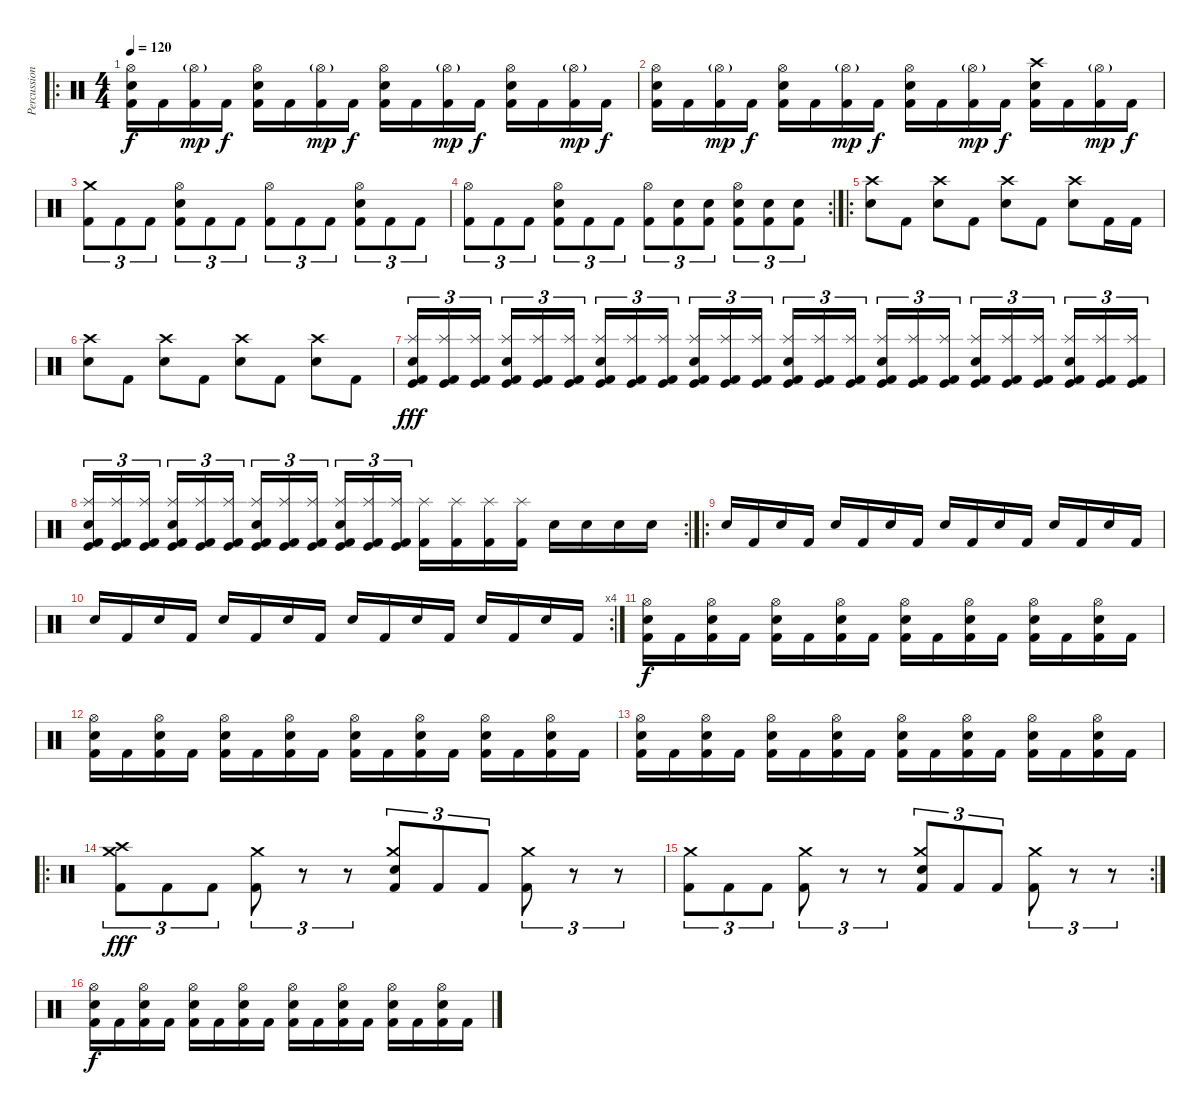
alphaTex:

\track ("Percussions" "Percussion") {instrument percussion}
\staff {score}
\articulation defaults
\ro
\ts (4 4)
\tempo 120
\clef neutral
\ks c
("Hi-Hat (open)" "Snare (hit) 2" "Kick (hit) 2").16{dy f} "Kick (hit) 2".16 ("Hi-Hat (open)"{g} "Kick (hit) 2").16{dy mp} "Kick (hit) 2".16{dy f} ("Hi-Hat (open)" "Snare (hit) 2" "Kick (hit) 2").16 "Kick (hit) 2".16 ("Hi-Hat (open)"{g} "Kick (hit) 2").16{dy mp} "Kick (hit) 2".16{dy f} ("Hi-Hat (open)" "Snare (hit) 2" "Kick (hit) 2").16 "Kick (hit) 2".16 ("Hi-Hat (open)"{g} "Kick (hit) 2").16{dy mp} "Kick (hit) 2".16{dy f} ("Hi-Hat (open)" "Snare (hit) 2" "Kick (hit) 2").16 "Kick (hit) 2".16 ("Hi-Hat (open)"{g} "Kick (hit) 2").16{dy mp} "Kick (hit) 2".16{dy f} |
("Hi-Hat (open)" "Snare (hit) 2" "Kick (hit) 2").16 "Kick (hit) 2".16 ("Hi-Hat (open)"{g} "Kick (hit) 2").16{dy mp} "Kick (hit) 2".16{dy f} ("Hi-Hat (open)" "Snare (hit) 2" "Kick (hit) 2").16 "Kick (hit) 2".16 ("Hi-Hat (open)"{g} "Kick (hit) 2").16{dy mp} "Kick (hit) 2".16{dy f} ("Hi-Hat (open)" "Snare (hit) 2" "Kick (hit) 2").16 "Kick (hit) 2".16 ("Hi-Hat (open)"{g} "Kick (hit) 2").16{dy mp} "Kick (hit) 2".16{dy f} ("Crash high (hit)" "Snare (hit) 2" "Kick (hit) 2").16 "Kick (hit) 2".16 ("Hi-Hat (open)"{g} "Kick (hit) 2").16{dy mp} "Kick (hit) 2".16{dy f} |
("Crash medium (hit)" "Kick (hit) 2").8{tu (3 2)} "Kick (hit) 2".8{tu (3 2)} "Kick (hit) 2".8{tu (3 2)} ("Hi-Hat (open)" "Kick (hit) 2" "Snare (hit) 2").8{tu (3 2)} "Kick (hit) 2".8{tu (3 2)} "Kick (hit) 2".8{tu (3 2)} ("Hi-Hat (open)" "Kick (hit) 2").8{tu (3 2)} "Kick (hit) 2".8{tu (3 2)} "Kick (hit) 2".8{tu (3 2)} ("Hi-Hat (open)" "Kick (hit) 2" "Snare (hit) 2").8{tu (3 2)} "Kick (hit) 2".8{tu (3 2)} "Kick (hit) 2".8{tu (3 2)} |
\rc 2
("Hi-Hat (open)" "Kick (hit) 2").8{tu (3 2)} "Kick (hit) 2".8{tu (3 2)} "Kick (hit) 2".8{tu (3 2)} ("Hi-Hat (open)" "Kick (hit) 2" "Snare (hit) 2").8{tu (3 2)} "Kick (hit) 2".8{tu (3 2)} "Kick (hit) 2".8{tu (3 2)} ("Hi-Hat (open)" "Kick (hit) 2").8{tu (3 2)} ("Snare (hit) 2" "Kick (hit) 2").8{tu (3 2)} ("Snare (hit) 2" "Kick (hit) 2").8{tu (3 2)} ("Hi-Hat (open)" "Snare (hit) 2" "Kick (hit) 2").8{tu (3 2)} ("Snare (hit) 2" "Kick (hit) 2").8{tu (3 2)} ("Snare (hit) 2" "Kick (hit) 2").8{tu (3 2)} |
\ro
("Crash high (hit)" "Snare (hit) 2").8 "Kick (hit) 2".8 ("Crash high (hit)" "Snare (hit) 2").8 "Kick (hit) 2".8 ("Crash high (hit)" "Snare (hit) 2").8 "Kick (hit) 2".8 ("Crash high (hit)" "Snare (hit) 2").8 "Kick (hit) 2".16 "Kick (hit) 2".16 |
("Crash high (hit)" "Snare (hit) 2").8 "Kick (hit) 2".8 ("Crash high (hit)" "Snare (hit) 2").8 "Kick (hit) 2".8 ("Crash high (hit)" "Snare (hit) 2").8 "Kick (hit) 2".8 ("Crash high (hit)" "Snare (hit) 2").8 "Kick (hit) 2".8 |
("Splash (hit)" "Electric Snare (hit)" "Kick (hit) 2" "Kick (hit)").16{tu (3 2) dy fff} ("Splash (hit)" "Kick (hit) 2" "Kick (hit)").16{tu (3 2)} ("Splash (hit)" "Kick (hit) 2" "Kick (hit)").16{tu (3 2) beam splitsecondary} ("Splash (hit)" "Electric Snare (hit)" "Kick (hit) 2" "Kick (hit)").16{tu (3 2)} ("Splash (hit)" "Kick (hit) 2" "Kick (hit)").16{tu (3 2)} ("Splash (hit)" "Kick (hit) 2" "Kick (hit)").16{tu (3 2)} ("Splash (hit)" "Electric Snare (hit)" "Kick (hit) 2" "Kick (hit)").16{tu (3 2)} ("Splash (hit)" "Kick (hit) 2" "Kick (hit)").16{tu (3 2)} ("Splash (hit)" "Kick (hit) 2" "Kick (hit)").16{tu (3 2) beam splitsecondary} ("Splash (hit)" "Electric Snare (hit)" "Kick (hit) 2" "Kick (hit)").16{tu (3 2)} ("Splash (hit)" "Kick (hit) 2" "Kick (hit)").16{tu (3 2)} ("Splash (hit)" "Kick (hit) 2" "Kick (hit)").16{tu (3 2)} ("Splash (hit)" "Electric Snare (hit)" "Kick (hit) 2" "Kick (hit)").16{tu (3 2)} ("Splash (hit)" "Kick (hit) 2" "Kick (hit)").16{tu (3 2)} ("Splash (hit)" "Kick (hit) 2" "Kick (hit)").16{tu (3 2) beam splitsecondary} ("Splash (hit)" "Electric Snare (hit)" "Kick (hit) 2" "Kick (hit)").16{tu (3 2)} ("Splash (hit)" "Kick (hit) 2" "Kick (hit)").16{tu (3 2)} ("Splash (hit)" "Kick (hit) 2" "Kick (hit)").16{tu (3 2)} ("Splash (hit)" "Electric Snare (hit)" "Kick (hit) 2" "Kick (hit)").16{tu (3 2)} ("Splash (hit)" "Kick (hit) 2" "Kick (hit)").16{tu (3 2)} ("Splash (hit)" "Kick (hit) 2" "Kick (hit)").16{tu (3 2) beam splitsecondary} ("Splash (hit)" "Electric Snare (hit)" "Kick (hit) 2" "Kick (hit)").16{tu (3 2)} ("Splash (hit)" "Kick (hit) 2" "Kick (hit)").16{tu (3 2)} ("Splash (hit)" "Kick (hit) 2" "Kick (hit)").16{tu (3 2)} |
\rc 2
("Splash (hit)" "Electric Snare (hit)" "Kick (hit) 2" "Kick (hit)").16{tu (3 2)} ("Splash (hit)" "Kick (hit) 2" "Kick (hit)").16{tu (3 2)} ("Splash (hit)" "Kick (hit) 2" "Kick (hit)").16{tu (3 2) beam splitsecondary} ("Splash (hit)" "Electric Snare (hit)" "Kick (hit) 2" "Kick (hit)").16{tu (3 2)} ("Splash (hit)" "Kick (hit) 2" "Kick (hit)").16{tu (3 2)} ("Splash (hit)" "Kick (hit) 2" "Kick (hit)").16{tu (3 2)} ("Splash (hit)" "Electric Snare (hit)" "Kick (hit) 2" "Kick (hit)").16{tu (3 2)} ("Splash (hit)" "Kick (hit) 2" "Kick (hit)").16{tu (3 2)} ("Splash (hit)" "Kick (hit) 2" "Kick (hit)").16{tu (3 2) beam splitsecondary} ("Splash (hit)" "Electric Snare (hit)" "Kick (hit) 2" "Kick (hit)").16{tu (3 2)} ("Splash (hit)" "Kick (hit) 2" "Kick (hit)").16{tu (3 2)} ("Splash (hit)" "Kick (hit) 2" "Kick (hit)").16{tu (3 2)} ("Splash (hit)" "Kick (hit) 2").16 ("Splash (hit)" "Kick (hit) 2").16 ("Splash (hit)" "Kick (hit) 2").16 ("Splash (hit)" "Kick (hit) 2").16 "Electric Snare (hit)".16 "Electric Snare (hit)".16 "Electric Snare (hit)".16 "Electric Snare (hit)".16 |
\ro "Electric Snare (hit)".16 "Kick (hit) 2".16 "Electric Snare (hit)".16 "Kick (hit) 2".16 "Electric Snare (hit)".16 "Kick (hit) 2".16 "Electric Snare (hit)".16 "Kick (hit) 2".16 "Electric Snare (hit)".16 "Kick (hit) 2".16 "Electric Snare (hit)".16 "Kick (hit) 2".16 "Electric Snare (hit)".16 "Kick (hit) 2".16 "Electric Snare (hit)".16 "Kick (hit) 2".16
|
\rc 4 "Electric Snare (hit)".16 "Kick (hit) 2".16 "Electric Snare (hit)".16 "Kick (hit) 2".16 "Electric Snare (hit)".16 "Kick (hit) 2".16 "Electric Snare (hit)".16 "Kick (hit) 2".16 "Electric Snare (hit)".16 "Kick (hit) 2".16 "Electric Snare (hit)".16 "Kick (hit) 2".16 "Electric Snare (hit)".16 "Kick (hit) 2".16 "Electric Snare (hit)".16 "Kick (hit) 2".16
|
("Hi-Hat (open)" "Electric Snare (hit)" "Kick (hit) 2").16{dy f} "Kick (hit) 2".16 ("Hi-Hat (open)" "Electric Snare (hit)" "Kick (hit) 2").16 "Kick (hit) 2".16 ("Hi-Hat (open)" "Electric Snare (hit)" "Kick (hit) 2").16 "Kick (hit) 2".16 ("Hi-Hat (open)" "Electric Snare (hit)" "Kick (hit) 2").16 "Kick (hit) 2".16 ("Hi-Hat (open)" "Electric Snare (hit)" "Kick (hit) 2").16 "Kick (hit) 2".16 ("Hi-Hat (open)" "Electric Snare (hit)" "Kick (hit) 2").16 "Kick (hit) 2".16 ("Hi-Hat (open)" "Electric Snare (hit)" "Kick (hit) 2").16 "Kick (hit) 2".16 ("Hi-Hat (open)" "Electric Snare (hit)" "Kick (hit) 2").16 "Kick (hit) 2".16 |
("Hi-Hat (open)" "Electric Snare (hit)" "Kick (hit) 2").16 "Kick (hit) 2".16 ("Hi-Hat (open)" "Electric Snare (hit)" "Kick (hit) 2").16 "Kick (hit) 2".16 ("Hi-Hat (open)" "Electric Snare (hit)" "Kick (hit) 2").16 "Kick (hit) 2".16 ("Hi-Hat (open)" "Electric Snare (hit)" "Kick (hit) 2").16 "Kick (hit) 2".16 ("Hi-Hat (open)" "Electric Snare (hit)" "Kick (hit) 2").16 "Kick (hit) 2".16 ("Hi-Hat (open)" "Electric Snare (hit)" "Kick (hit) 2").16 "Kick (hit) 2".16 ("Hi-Hat (open)" "Electric Snare (hit)" "Kick (hit) 2").16 "Kick (hit) 2".16 ("Hi-Hat (open)" "Electric Snare (hit)" "Kick (hit) 2").16 "Kick (hit) 2".16 |
("Hi-Hat (open)" "Electric Snare (hit)" "Kick (hit) 2").16 "Kick (hit) 2".16 ("Hi-Hat (open)" "Electric Snare (hit)" "Kick (hit) 2").16 "Kick (hit) 2".16 ("Hi-Hat (open)" "Electric Snare (hit)" "Kick (hit) 2").16 "Kick (hit) 2".16 ("Hi-Hat (open)" "Electric Snare (hit)" "Kick (hit) 2").16 "Kick (hit) 2".16 ("Hi-Hat (open)" "Electric Snare (hit)" "Kick (hit) 2").16 "Kick (hit) 2".16 ("Hi-Hat (open)" "Electric Snare (hit)" "Kick (hit) 2").16 "Kick (hit) 2".16 ("Hi-Hat (open)" "Electric Snare (hit)" "Kick (hit) 2").16 "Kick (hit) 2".16 ("Hi-Hat (open)" "Electric Snare (hit)" "Kick (hit) 2").16 "Kick (hit) 2".16 |
\ro
("Crash medium (hit)" "Crash high (hit)" "Kick (hit) 2").8{tu (3 2) dy fff} "Kick (hit) 2".8{tu (3 2)} "Kick (hit) 2".8{tu (3 2)} ("Crash medium (hit)" "Kick (hit) 2").8{tu (3 2)} r.8{tu (3 2)} r.8{tu (3 2)} ("Crash medium (hit)" "Electric Snare (hit)" "Kick (hit) 2").8{tu (3 2)} "Kick (hit) 2".8{tu (3 2)} "Kick (hit) 2".8{tu (3 2)} ("Crash medium (hit)" "Kick (hit) 2").8{tu (3 2)} r.8{tu (3 2)} r.8{tu (3 2)} |
\rc 2
("Crash medium (hit)" "Kick (hit) 2").8{tu (3 2)} "Kick (hit) 2".8{tu (3 2)} "Kick (hit) 2".8{tu (3 2)} ("Crash medium (hit)" "Kick (hit) 2").8{tu (3 2)} r.8{tu (3 2)} r.8{tu (3 2)} ("Crash medium (hit)" "Electric Snare (hit)" "Kick (hit) 2").8{tu (3 2)} "Kick (hit) 2".8{tu (3 2)} "Kick (hit) 2".8{tu (3 2)} ("Crash medium (hit)" "Kick (hit) 2").8{tu (3 2)} r.8{tu (3 2)} r.8{tu (3 2)} |
("Hi-Hat (open)" "Electric Snare (hit)" "Kick (hit) 2").16{dy f} "Kick (hit) 2".16 ("Hi-Hat (open)" "Electric Snare (hit)" "Kick (hit) 2").16 "Kick (hit) 2".16 ("Hi-Hat (open)" "Electric Snare (hit)" "Kick (hit) 2").16 "Kick (hit) 2".16 ("Hi-Hat (open)" "Electric Snare (hit)" "Kick (hit) 2").16 "Kick (hit) 2".16 ("Hi-Hat (open)" "Electric Snare (hit)" "Kick (hit) 2").16 "Kick (hit) 2".16 ("Hi-Hat (open)" "Electric Snare (hit)" "Kick (hit) 2").16 "Kick (hit) 2".16 ("Hi-Hat (open)" "Electric Snare (hit)" "Kick (hit) 2").16 "Kick (hit) 2".16 ("Hi-Hat (open)" "Electric Snare (hit)" "Kick (hit) 2").16 "Kick (hit) 2".16
